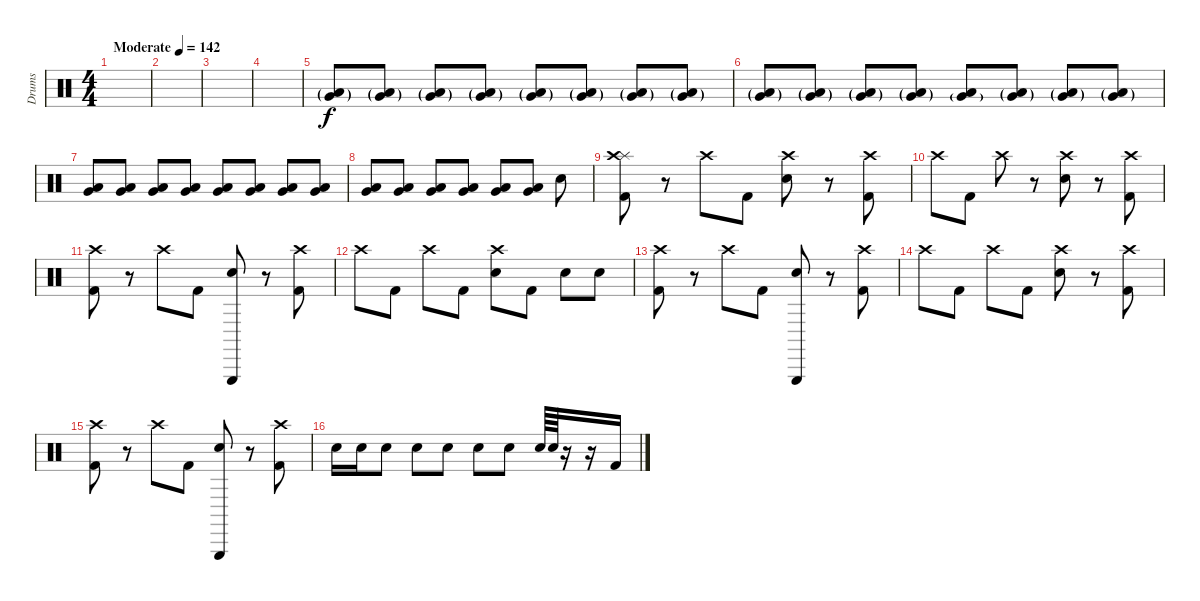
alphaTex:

\track ("Drums" "Drums") {instrument percussion}
\staff {score}
\articulation defaults
\ts (4 4)
\tempo (142 "Moderate")
\clef neutral
\ks c
|
|
|
|
("Very Low Tom (hit)"{g} "Low Tom (hit)"{g}).8 ("Very Low Tom (hit)"{g} "Low Tom (hit)"{g}).8 ("Very Low Tom (hit)"{g} "Low Tom (hit)"{g}).8 ("Very Low Tom (hit)"{g} "Low Tom (hit)"{g}).8 ("Very Low Tom (hit)"{g} "Low Tom (hit)"{g}).8 ("Very Low Tom (hit)"{g} "Low Tom (hit)"{g}).8 ("Very Low Tom (hit)"{g} "Low Tom (hit)"{g}).8 ("Very Low Tom (hit)"{g} "Low Tom (hit)"{g}).8 |
("Very Low Tom (hit)"{g} "Low Tom (hit)"{g}).8 ("Very Low Tom (hit)"{g} "Low Tom (hit)"{g}).8 ("Very Low Tom (hit)"{g} "Low Tom (hit)"{g}).8 ("Very Low Tom (hit)"{g} "Low Tom (hit)"{g}).8 ("Very Low Tom (hit)"{g} "Low Tom (hit)").8 ("Very Low Tom (hit)"{g} "Low Tom (hit)"{g}).8 ("Very Low Tom (hit)"{g} "Low Tom (hit)"{g}).8 ("Very Low Tom (hit)"{g} "Low Tom (hit)"{g}).8 |
("Very Low Tom (hit)" "Low Tom (hit)").8{dy f} ("Very Low Tom (hit)" "Low Tom (hit)").8 ("Very Low Tom (hit)" "Low Tom (hit)").8 ("Very Low Tom (hit)" "Low Tom (hit)").8 ("Very Low Tom (hit)" "Low Tom (hit)").8 ("Very Low Tom (hit)" "Low Tom (hit)").8 ("Very Low Tom (hit)" "Low Tom (hit)").8 ("Very Low Tom (hit)" "Low Tom (hit)").8 |
("Very Low Tom (hit)" "Low Tom (hit)").8 ("Very Low Tom (hit)" "Low Tom (hit)").8 ("Very Low Tom (hit)" "Low Tom (hit)").8 ("Very Low Tom (hit)" "Low Tom (hit)").8 ("Very Low Tom (hit)" "Low Tom (hit)").8 ("Very Low Tom (hit)" "Low Tom (hit)").8 "Snare (hit) 2".8 |
("Splash (hit)" "Crash high (hit)" "Kick (hit) 2").8 r.8 "Crash high (hit)".8 "Kick (hit) 2".8 ("Crash high (hit)" "Snare (hit) 2").8 r.8 ("Crash high (hit)" "Kick (hit) 2").8 |
"Crash high (hit)".8 "Kick (hit) 2".8 "Crash high (hit)".8 r.8 ("Crash high (hit)" "Snare (hit) 2").8 r.8 ("Crash high (hit)" "Kick (hit) 2").8 |
("Crash high (hit)" "Kick (hit) 2").8 r.8 "Crash high (hit)".8 "Kick (hit) 2".8 ("Triangle (hit)" "Snare (hit) 2").8 r.8 ("Crash high (hit)" "Kick (hit) 2").8 |
"Crash high (hit)".8 "Kick (hit) 2".8 "Crash high (hit)".8 "Kick (hit) 2".8 ("Crash high (hit)" "Snare (hit) 2").8 "Kick (hit) 2".8 "Snare (hit) 2".8 "Snare (hit) 2".8 |
("Crash high (hit)" "Kick (hit) 2").8 r.8 "Crash high (hit)".8 "Kick (hit) 2".8 ("Triangle (hit)" "Snare (hit) 2").8 r.8 ("Crash high (hit)" "Kick (hit) 2").8 |
"Crash high (hit)".8 "Kick (hit) 2".8 "Crash high (hit)".8 "Kick (hit) 2".8 ("Crash high (hit)" "Snare (hit) 2").8 r.8 ("Crash high (hit)" "Kick (hit) 2").8 |
("Crash high (hit)" "Kick (hit) 2").8 r.8 "Crash high (hit)".8 "Kick (hit) 2".8 ("Triangle (hit)" "Snare (hit) 2").8 r.8 ("Crash high (hit)" "Kick (hit) 2").8 |
"Snare (hit) 2".16 "Snare (hit) 2".16 "Snare (hit) 2".8 "Snare (hit) 2".8 "Snare (hit) 2".8 "Snare (hit) 2".8 "Snare (hit) 2".8 "Snare (hit) 2".64 "Snare (hit) 2".64 r.16 r.16 "Kick (hit) 2".16
